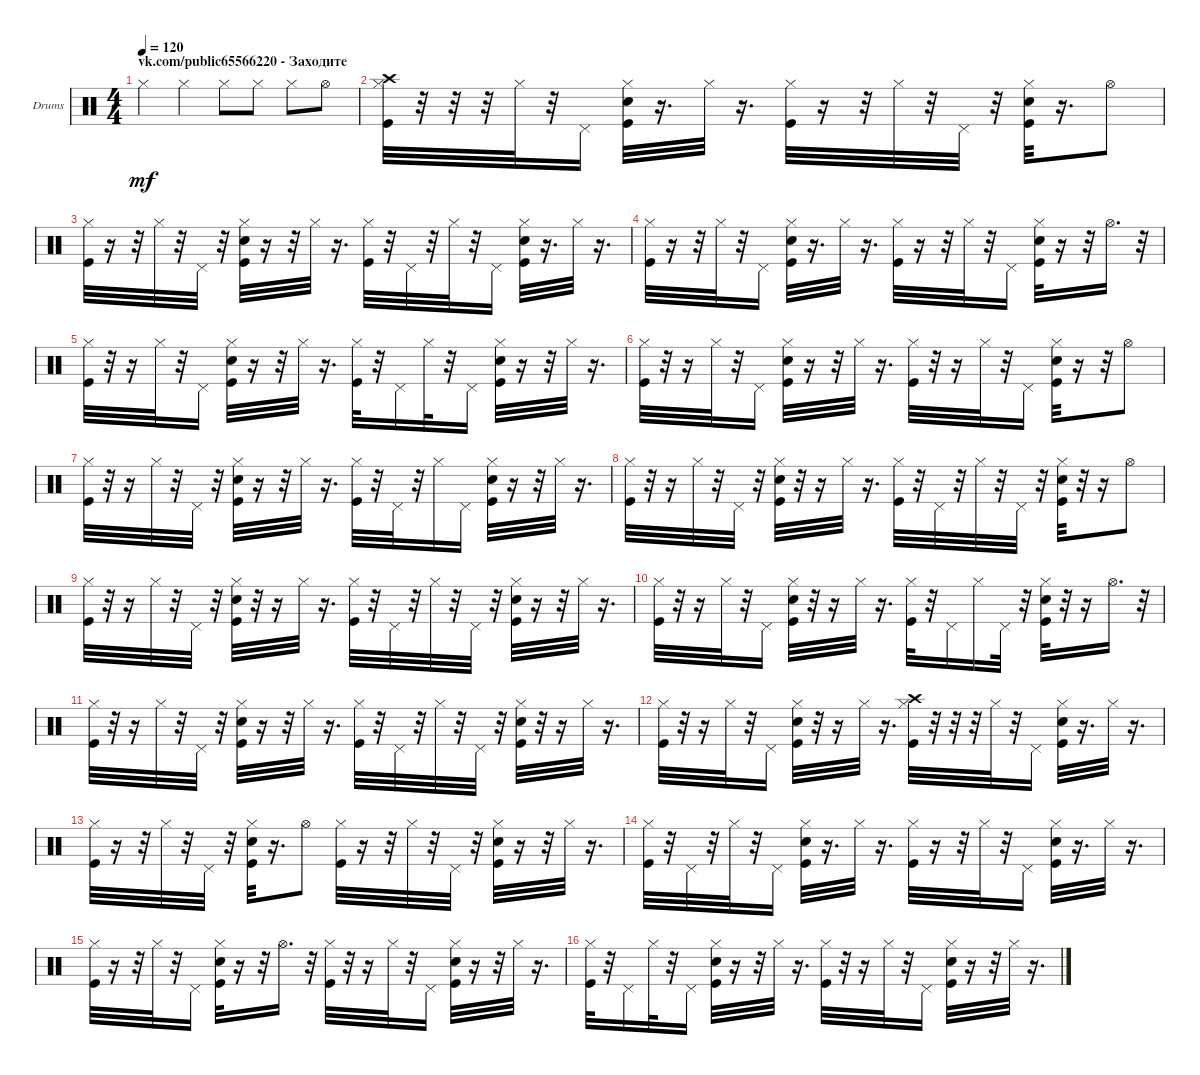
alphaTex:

\bracketExtendMode groupsimilarinstruments
\firstSystemTrackNameOrientation horizontal
\otherSystemsTrackNameOrientation horizontal
\track ("Ударные" "Drums") {instrument percussion}
\staff {score}
\articulation defaults
\ts (4 4)
\section ("" "vk.com/public65566220 - Заходите")
\tempo 120
\clef neutral
\ks c "Hi-Hat (closed)".4{dy mf} "Hi-Hat (closed)".4 "Hi-Hat (closed)".8 "Hi-Hat (closed)".8 "Hi-Hat (closed)".8 "Hi-Hat (open)".8
|
("Kick (hit)" "Hi-Hat (closed)" "Crash high (hit)").32 r.32 r.32 r.32 "Hi-Hat (closed)".32 r.32 "Pedal Hi-Hat (hit)".16 ("Kick (hit)" "Snare (hit) 2" "Hi-Hat (closed)").32 r.16{d} "Hi-Hat (closed)".32 r.16{d} ("Kick (hit)" "Hi-Hat (closed)").32 r.16 r.32 "Hi-Hat (closed)".32 r.32 "Pedal Hi-Hat (hit)".32 r.32 ("Kick (hit)" "Snare (hit) 2" "Hi-Hat (closed)").32 r.16{d} "Hi-Hat (open)".8 |
("Kick (hit)" "Hi-Hat (closed)").32 r.16 r.32 "Hi-Hat (closed)".32 r.32 "Pedal Hi-Hat (hit)".32 r.32 ("Snare (hit) 2" "Kick (hit)" "Hi-Hat (closed)").32 r.16 r.32 "Hi-Hat (closed)".32 r.16{d} ("Kick (hit)" "Hi-Hat (closed)").32 r.32 "Pedal Hi-Hat (hit)".32 r.32 "Hi-Hat (closed)".32 r.32 "Pedal Hi-Hat (hit)".16 ("Kick (hit)" "Snare (hit) 2" "Hi-Hat (closed)").32 r.16{d} "Hi-Hat (closed)".32 r.16{d} |
("Kick (hit)" "Hi-Hat (closed)").32 r.16 r.32 "Hi-Hat (closed)".32 r.32 "Pedal Hi-Hat (hit)".16 ("Snare (hit) 2" "Kick (hit)" "Hi-Hat (closed)").32 r.16{d} "Hi-Hat (closed)".32 r.16{d} ("Kick (hit)" "Hi-Hat (closed)").32 r.16 r.32 "Hi-Hat (closed)".32 r.32 "Pedal Hi-Hat (hit)".16 ("Snare (hit) 2" "Kick (hit)" "Hi-Hat (closed)").32 r.16 r.32 "Hi-Hat (open)".16{d} r.32 |
("Kick (hit)" "Hi-Hat (closed)").32 r.32 r.16 "Hi-Hat (closed)".32 r.32 "Pedal Hi-Hat (hit)".16 ("Kick (hit)" "Snare (hit) 2" "Hi-Hat (closed)").32 r.16 r.32 "Hi-Hat (closed)".32 r.16{d} ("Kick (hit)" "Hi-Hat (closed)").32 r.32 "Pedal Hi-Hat (hit)".16 "Hi-Hat (closed)".32 r.32 "Pedal Hi-Hat (hit)".16 ("Snare (hit) 2" "Kick (hit)" "Hi-Hat (closed)").32 r.16 r.32 "Hi-Hat (closed)".32 r.16{d} |
("Kick (hit)" "Hi-Hat (closed)").32 r.32 r.16 "Hi-Hat (closed)".32 r.32 "Pedal Hi-Hat (hit)".16 ("Snare (hit) 2" "Kick (hit)" "Hi-Hat (closed)").32 r.16 r.32 "Hi-Hat (closed)".32 r.16{d} ("Kick (hit)" "Hi-Hat (closed)").32 r.32 r.16 "Hi-Hat (closed)".32 r.32 "Pedal Hi-Hat (hit)".16 ("Snare (hit) 2" "Kick (hit)" "Hi-Hat (closed)").32 r.16 r.32 "Hi-Hat (open)".8 |
("Kick (hit)" "Hi-Hat (closed)").32 r.32 r.16 "Hi-Hat (closed)".32 r.32 "Pedal Hi-Hat (hit)".32 r.32 ("Kick (hit)" "Snare (hit) 2" "Hi-Hat (closed)").32 r.16 r.32 "Hi-Hat (closed)".32 r.16{d} ("Kick (hit)" "Hi-Hat (closed)").32 r.32 "Pedal Hi-Hat (hit)".32 r.32 "Hi-Hat (closed)".16 "Pedal Hi-Hat (hit)".16 ("Snare (hit) 2" "Kick (hit)" "Hi-Hat (closed)").32 r.16 r.32 "Hi-Hat (closed)".32 r.16{d} |
("Kick (hit)" "Hi-Hat (closed)").32 r.32 r.16 "Hi-Hat (closed)".32 r.32 "Pedal Hi-Hat (hit)".32 r.32 ("Kick (hit)" "Snare (hit) 2" "Hi-Hat (closed)").32 r.32 r.16 "Hi-Hat (closed)".32 r.16{d} ("Kick (hit)" "Hi-Hat (closed)").32 r.32 "Pedal Hi-Hat (hit)".32 r.32 "Hi-Hat (closed)".32 r.32 "Pedal Hi-Hat (hit)".32 r.32 ("Snare (hit) 2" "Kick (hit)" "Hi-Hat (closed)").32 r.32 r.16 "Hi-Hat (open)".8 |
("Kick (hit)" "Hi-Hat (closed)").32 r.32 r.16 "Hi-Hat (closed)".32 r.32 "Pedal Hi-Hat (hit)".32 r.32 ("Snare (hit) 2" "Kick (hit)" "Hi-Hat (closed)").32 r.32 r.16 "Hi-Hat (closed)".32 r.16{d} ("Kick (hit)" "Hi-Hat (closed)").32 r.32 "Pedal Hi-Hat (hit)".32 r.32 "Hi-Hat (closed)".32 r.32 "Pedal Hi-Hat (hit)".32 r.32 ("Snare (hit) 2" "Kick (hit)" "Hi-Hat (closed)").32 r.16 r.32 "Hi-Hat (closed)".32 r.16{d} |
("Kick (hit)" "Hi-Hat (closed)").32 r.32 r.16 "Hi-Hat (closed)".32 r.32 "Pedal Hi-Hat (hit)".16 ("Snare (hit) 2" "Kick (hit)" "Hi-Hat (closed)").32 r.32 r.16 "Hi-Hat (closed)".32 r.16{d} ("Kick (hit)" "Hi-Hat (closed)").32 r.32 "Pedal Hi-Hat (hit)".16 "Hi-Hat (closed)".16 "Pedal Hi-Hat (hit)".32 r.32 ("Snare (hit) 2" "Kick (hit)" "Hi-Hat (closed)").32 r.32 r.16 "Hi-Hat (open)".16{d} r.32 |
("Kick (hit)" "Hi-Hat (closed)").32 r.32 r.16 "Hi-Hat (closed)".32 r.32 "Pedal Hi-Hat (hit)".32 r.32 ("Kick (hit)" "Snare (hit) 2" "Hi-Hat (closed)").32 r.16 r.32 "Hi-Hat (closed)".32 r.16{d} ("Kick (hit)" "Hi-Hat (closed)").32 r.32 "Pedal Hi-Hat (hit)".32 r.32 "Hi-Hat (closed)".32 r.32 "Pedal Hi-Hat (hit)".32 r.32 ("Snare (hit) 2" "Kick (hit)" "Hi-Hat (closed)").32 r.32 r.16 "Hi-Hat (closed)".32 r.16{d} |
("Kick (hit)" "Hi-Hat (closed)").32 r.32 r.16 "Hi-Hat (closed)".32 r.32 "Pedal Hi-Hat (hit)".16 ("Snare (hit) 2" "Kick (hit)" "Hi-Hat (closed)").32 r.32 r.16 "Hi-Hat (closed)".32 r.16{d} ("Kick (hit)" "Hi-Hat (closed)" "Crash high (hit)").32 r.32 r.32 r.32 "Hi-Hat (closed)".32 r.32 "Pedal Hi-Hat (hit)".16 ("Kick (hit)" "Snare (hit) 2" "Hi-Hat (closed)").32 r.16{d} "Hi-Hat (closed)".32 r.16{d} |
("Kick (hit)" "Hi-Hat (closed)").32 r.16 r.32 "Hi-Hat (closed)".32 r.32 "Pedal Hi-Hat (hit)".32 r.32 ("Kick (hit)" "Snare (hit) 2" "Hi-Hat (closed)").32 r.16{d} "Hi-Hat (open)".8 ("Kick (hit)" "Hi-Hat (closed)").32 r.16 r.32 "Hi-Hat (closed)".32 r.32 "Pedal Hi-Hat (hit)".32 r.32 ("Snare (hit) 2" "Kick (hit)" "Hi-Hat (closed)").32 r.16 r.32 "Hi-Hat (closed)".32 r.16{d} |
("Kick (hit)" "Hi-Hat (closed)").32 r.32 "Pedal Hi-Hat (hit)".32 r.32 "Hi-Hat (closed)".32 r.32 "Pedal Hi-Hat (hit)".16 ("Kick (hit)" "Snare (hit) 2" "Hi-Hat (closed)").32 r.16{d} "Hi-Hat (closed)".32 r.16{d} ("Kick (hit)" "Hi-Hat (closed)").32 r.16 r.32 "Hi-Hat (closed)".32 r.32 "Pedal Hi-Hat (hit)".16 ("Snare (hit) 2" "Kick (hit)" "Hi-Hat (closed)").32 r.16{d} "Hi-Hat (closed)".32 r.16{d} |
("Kick (hit)" "Hi-Hat (closed)").32 r.16 r.32 "Hi-Hat (closed)".32 r.32 "Pedal Hi-Hat (hit)".16 ("Snare (hit) 2" "Kick (hit)" "Hi-Hat (closed)").32 r.16 r.32 "Hi-Hat (open)".16{d} r.32 ("Kick (hit)" "Hi-Hat (closed)").32 r.32 r.16 "Hi-Hat (closed)".32 r.32 "Pedal Hi-Hat (hit)".16 ("Kick (hit)" "Snare (hit) 2" "Hi-Hat (closed)").32 r.16 r.32 "Hi-Hat (closed)".32 r.16{d} |
("Kick (hit)" "Hi-Hat (closed)").32 r.32 "Pedal Hi-Hat (hit)".16 "Hi-Hat (closed)".32 r.32 "Pedal Hi-Hat (hit)".16 ("Snare (hit) 2" "Kick (hit)" "Hi-Hat (closed)").32 r.16 r.32 "Hi-Hat (closed)".32 r.16{d} ("Kick (hit)" "Hi-Hat (closed)").32 r.32 r.16 "Hi-Hat (closed)".32 r.32 "Pedal Hi-Hat (hit)".16 ("Snare (hit) 2" "Kick (hit)" "Hi-Hat (closed)").32 r.16 r.32 "Hi-Hat (closed)".32 r.16{d}
